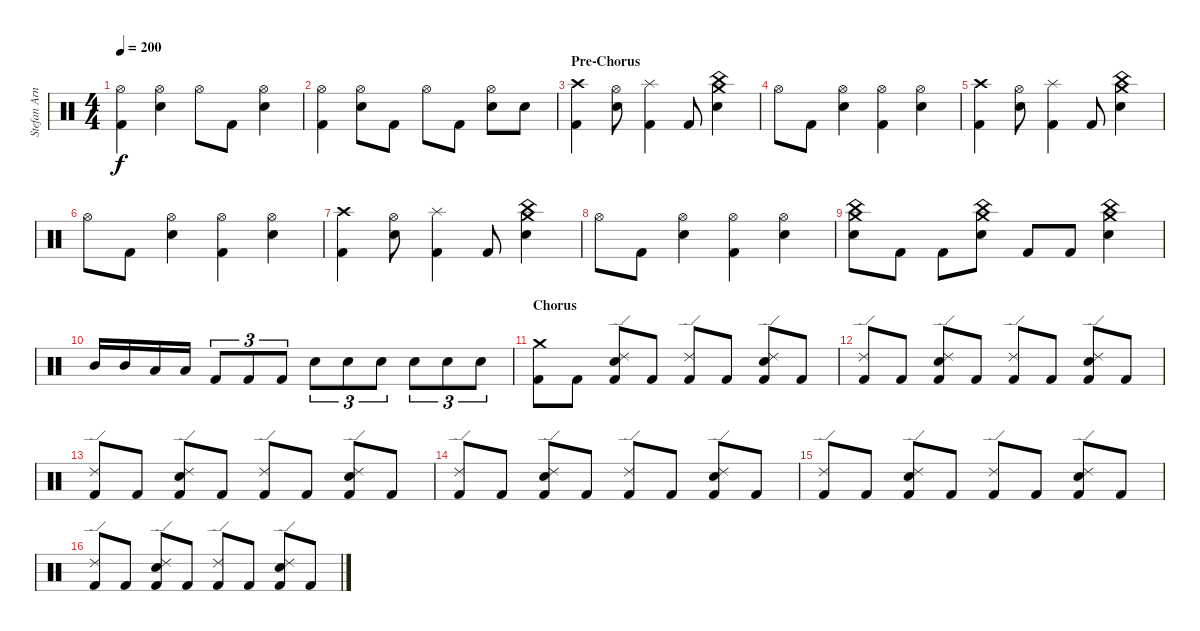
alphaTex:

\track ("Stefan Arnold" "Stefan Arn") {instrument percussion}
\staff {score}
\articulation defaults
\ts (4 4)
\tempo 200
\clef neutral
\ks c
("Hi-Hat (open)" "Kick (hit) 2").4{dy f} ("Hi-Hat (open)" "Electric Snare (hit)").4 "Hi-Hat (open)".8 "Kick (hit) 2".8 ("Hi-Hat (open)" "Electric Snare (hit)").4 |
("Hi-Hat (open)" "Kick (hit) 2").4 ("Hi-Hat (open)" "Electric Snare (hit)").8 "Kick (hit) 2".8 "Hi-Hat (open)".8 "Kick (hit) 2".8 ("Hi-Hat (open)" "Electric Snare (hit)").8 "Electric Snare (hit)".8 |
\section ("" "Pre-Chorus")
("Crash high (hit)" "Kick (hit) 2").4 ("Hi-Hat (open)" "Electric Snare (hit)").8 ("Splash (hit)" "Kick (hit) 2").4 "Kick (hit) 2".8 ("Crash medium (hit)" "China (hit)" "Electric Snare (hit)").4 |
"Hi-Hat (open)".8 "Kick (hit) 2".8 ("Hi-Hat (open)" "Electric Snare (hit)").4 ("Hi-Hat (open)" "Kick (hit) 2").4 ("Hi-Hat (open)" "Electric Snare (hit)").4 |
("Crash high (hit)" "Kick (hit) 2").4 ("Hi-Hat (open)" "Electric Snare (hit)").8 ("Splash (hit)" "Kick (hit) 2").4 "Kick (hit) 2".8 ("Crash medium (hit)" "China (hit)" "Electric Snare (hit)").4 |
"Hi-Hat (open)".8 "Kick (hit) 2".8 ("Hi-Hat (open)" "Electric Snare (hit)").4 ("Hi-Hat (open)" "Kick (hit) 2").4 ("Hi-Hat (open)" "Electric Snare (hit)").4 |
("Crash high (hit)" "Kick (hit) 2").4 ("Hi-Hat (open)" "Electric Snare (hit)").8 ("Splash (hit)" "Kick (hit) 2").4 "Kick (hit) 2".8 ("Crash medium (hit)" "China (hit)" "Electric Snare (hit)").4 |
"Hi-Hat (open)".8 "Kick (hit) 2".8 ("Hi-Hat (open)" "Electric Snare (hit)").4 ("Hi-Hat (open)" "Kick (hit) 2").4 ("Hi-Hat (open)" "Electric Snare (hit)").4 |
("Crash medium (hit)" "China (hit)" "Electric Snare (hit)").8 "Kick (hit) 2".8 "Kick (hit) 2".8 ("Crash medium (hit)" "China (hit)" "Electric Snare (hit)").8 "Kick (hit) 2".8 "Kick (hit) 2".8 ("Crash medium (hit)" "China (hit)" "Electric Snare (hit)").4 |
"Mid Tom (hit)".16 "Mid Tom (hit)".16 "Low Tom (hit)".16 "Low Tom (hit)".16 "Kick (hit) 2".8{tu (3 2)} "Kick (hit) 2".8{tu (3 2)} "Kick (hit) 2".8{tu (3 2)} "Electric Snare (hit)".8{tu (3 2)} "Electric Snare (hit)".8{tu (3 2)} "Electric Snare (hit)".8{tu (3 2)} "Electric Snare (hit)".8{tu (3 2)} "Electric Snare (hit)".8{tu (3 2)} "Electric Snare (hit)".8{tu (3 2)} |
\section ("" "Chorus")
("Crash medium (hit)" "Kick (hit) 2").8 "Kick (hit) 2".8 ("Ride (edge) 2" "Electric Snare (hit)" "Kick (hit) 2").8 "Kick (hit) 2".8 ("Ride (edge) 2" "Kick (hit) 2").8 "Kick (hit) 2".8 ("Ride (edge) 2" "Electric Snare (hit)" "Kick (hit) 2").8 "Kick (hit) 2".8 |
("Ride (edge) 2" "Kick (hit) 2").8 "Kick (hit) 2".8 ("Ride (edge) 2" "Electric Snare (hit)" "Kick (hit) 2").8 "Kick (hit) 2".8 ("Ride (edge) 2" "Kick (hit) 2").8 "Kick (hit) 2".8 ("Ride (edge) 2" "Electric Snare (hit)" "Kick (hit) 2").8 "Kick (hit) 2".8 |
("Ride (edge) 2" "Kick (hit) 2").8 "Kick (hit) 2".8 ("Ride (edge) 2" "Electric Snare (hit)" "Kick (hit) 2").8 "Kick (hit) 2".8 ("Ride (edge) 2" "Kick (hit) 2").8 "Kick (hit) 2".8 ("Ride (edge) 2" "Electric Snare (hit)" "Kick (hit) 2").8 "Kick (hit) 2".8 |
("Ride (edge) 2" "Kick (hit) 2").8 "Kick (hit) 2".8 ("Ride (edge) 2" "Electric Snare (hit)" "Kick (hit) 2").8 "Kick (hit) 2".8 ("Ride (edge) 2" "Kick (hit) 2").8 "Kick (hit) 2".8 ("Ride (edge) 2" "Electric Snare (hit)" "Kick (hit) 2").8 "Kick (hit) 2".8 |
("Ride (edge) 2" "Kick (hit) 2").8 "Kick (hit) 2".8 ("Ride (edge) 2" "Electric Snare (hit)" "Kick (hit) 2").8 "Kick (hit) 2".8 ("Ride (edge) 2" "Kick (hit) 2").8 "Kick (hit) 2".8 ("Ride (edge) 2" "Electric Snare (hit)" "Kick (hit) 2").8 "Kick (hit) 2".8 |
("Ride (edge) 2" "Kick (hit) 2").8 "Kick (hit) 2".8 ("Ride (edge) 2" "Electric Snare (hit)" "Kick (hit) 2").8 "Kick (hit) 2".8 ("Ride (edge) 2" "Kick (hit) 2").8 "Kick (hit) 2".8 ("Ride (edge) 2" "Electric Snare (hit)" "Kick (hit) 2").8 "Kick (hit) 2".8
